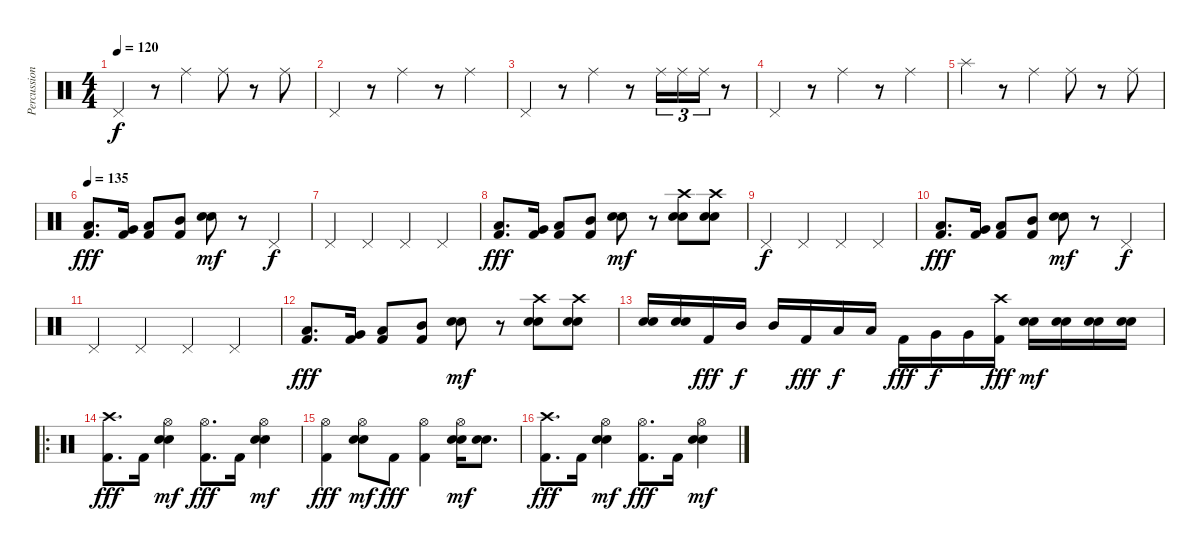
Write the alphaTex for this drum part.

\track ("Percussion" "Percussion") {instrument percussion}
\staff {score}
\articulation defaults
\ts (4 4)
\tempo 120
\clef neutral
\ks c "Pedal Hi-Hat (hit)".4{dy f}
r.8 "Ride (middle)".4 "Ride (middle)".8 r.8 "Ride (middle)".8 |
"Pedal Hi-Hat (hit)".4 r.8 "Ride (middle)".4 r.8 "Ride (middle)".4 |
"Pedal Hi-Hat (hit)".4 r.8 "Ride (middle)".4 r.8 "Ride (middle)".16{tu (3 2)} "Ride (middle)".16{tu (3 2)} "Ride (middle)".16{tu (3 2)} r.8 |
"Pedal Hi-Hat (hit)".4 r.8 "Ride (middle)".4 r.8 "Ride (middle)".4 |
"Splash (hit)".4 r.8 "Ride (middle)".4 "Ride (middle)".8 r.8 "Ride (middle)".8 |
\tempo 135
("Low Floor Tom (hit)" "Kick (hit) 2").8{d dy fff} ("Very Low Tom (hit)" "Kick (hit) 2").16 ("Low Tom (hit)" "Kick (hit) 2").8 ("Mid Tom (hit)" "Kick (hit) 2").8 ("Electric Snare (hit)" "Snare (hit) 2").8{dy mf} r.8 "Pedal Hi-Hat (hit)".4{dy f} |
"Pedal Hi-Hat (hit)".4 "Pedal Hi-Hat (hit)".4 "Pedal Hi-Hat (hit)".4 "Pedal Hi-Hat (hit)".4 |
("Low Floor Tom (hit)" "Kick (hit) 2").8{d dy fff} ("Very Low Tom (hit)" "Kick (hit) 2").16 ("Low Tom (hit)" "Kick (hit) 2").8 ("Mid Tom (hit)" "Kick (hit) 2").8 ("Electric Snare (hit)" "Snare (hit) 2").8{dy mf} r.8 ("Crash high (hit)" "Electric Snare (hit)" "Snare (hit) 2").8 ("Crash high (hit)" "Electric Snare (hit)" "Snare (hit) 2").8 |
"Pedal Hi-Hat (hit)".4{dy f} "Pedal Hi-Hat (hit)".4 "Pedal Hi-Hat (hit)".4 "Pedal Hi-Hat (hit)".4 |
("Low Floor Tom (hit)" "Kick (hit) 2").8{d dy fff} ("Very Low Tom (hit)" "Kick (hit) 2").16 ("Low Tom (hit)" "Kick (hit) 2").8 ("Mid Tom (hit)" "Kick (hit) 2").8 ("Electric Snare (hit)" "Snare (hit) 2").8{dy mf} r.8 "Pedal Hi-Hat (hit)".4{dy f} |
"Pedal Hi-Hat (hit)".4 "Pedal Hi-Hat (hit)".4 "Pedal Hi-Hat (hit)".4 "Pedal Hi-Hat (hit)".4 |
("Low Floor Tom (hit)" "Kick (hit) 2").8{d dy fff} ("Very Low Tom (hit)" "Kick (hit) 2").16 ("Low Tom (hit)" "Kick (hit) 2").8 ("Mid Tom (hit)" "Kick (hit) 2").8 ("Electric Snare (hit)" "Snare (hit) 2").8{dy mf} r.8 ("Crash high (hit)" "Electric Snare (hit)" "Snare (hit) 2").8 ("Crash high (hit)" "Electric Snare (hit)" "Snare (hit) 2").8 |
("Electric Snare (hit)" "Snare (hit) 2").16 ("Electric Snare (hit)" "Snare (hit) 2").16 "Kick (hit) 2".16{dy fff} "Mid Tom (hit)".16{dy f} "Mid Tom (hit)".16 "Kick (hit) 2".16{dy fff} "Low Tom (hit)".16{dy f} "Low Tom (hit)".16 "Kick (hit) 2".16{dy fff} "Very Low Tom (hit)".16{dy f} "Very Low Tom (hit)".16 ("Crash high (hit)" "Kick (hit) 2").16{dy fff} ("Electric Snare (hit)" "Snare (hit) 2").16{dy mf} ("Electric Snare (hit)" "Snare (hit) 2").16 ("Electric Snare (hit)" "Snare (hit) 2").16 ("Electric Snare (hit)" "Snare (hit) 2").16 |
\ro
("Crash high (hit)" "Kick (hit) 2").8{d dy fff} "Kick (hit) 2".16 ("Hi-Hat (open)" "Electric Snare (hit)" "Snare (hit) 2").4{dy mf} ("Hi-Hat (open)" "Kick (hit) 2").8{d dy fff} "Kick (hit) 2".16 ("Hi-Hat (open)" "Electric Snare (hit)" "Snare (hit) 2").4{dy mf} |
("Hi-Hat (open)" "Kick (hit) 2").4{dy fff} ("Hi-Hat (open)" "Electric Snare (hit)" "Snare (hit) 2").8{dy mf} "Kick (hit) 2".8{dy fff} ("Hi-Hat (open)" "Kick (hit) 2").4 ("Hi-Hat (open)" "Electric Snare (hit)" "Snare (hit) 2").16{dy mf} ("Electric Snare (hit)" "Snare (hit) 2").8{d} |
("Crash high (hit)" "Kick (hit) 2").8{d dy fff} "Kick (hit) 2".16 ("Hi-Hat (open)" "Electric Snare (hit)" "Snare (hit) 2").4{dy mf} ("Hi-Hat (open)" "Kick (hit) 2").8{d dy fff} "Kick (hit) 2".16 ("Hi-Hat (open)" "Electric Snare (hit)" "Snare (hit) 2").4{dy mf}
